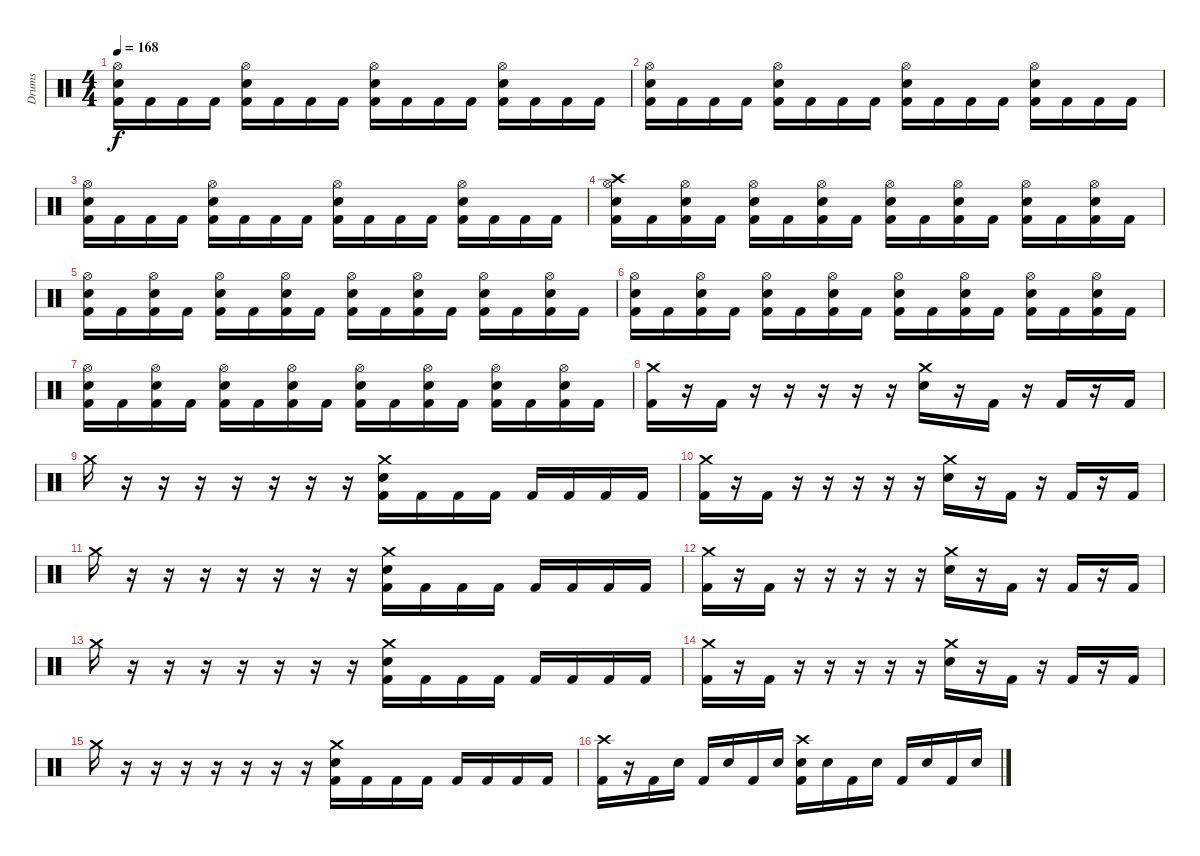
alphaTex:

\track ("Drums" "Drums") {instrument percussion}
\staff {score}
\articulation defaults
\ts (4 4)
\tempo 168
\clef neutral
\ks c
("Hi-Hat (open)" "Electric Snare (hit)" "Kick (hit) 2").16{dy f} "Kick (hit) 2".16 "Kick (hit) 2".16 "Kick (hit) 2".16 ("Hi-Hat (open)" "Electric Snare (hit)" "Kick (hit) 2").16 "Kick (hit) 2".16 "Kick (hit) 2".16 "Kick (hit) 2".16 ("Hi-Hat (open)" "Electric Snare (hit)" "Kick (hit) 2").16 "Kick (hit) 2".16 "Kick (hit) 2".16 "Kick (hit) 2".16 ("Hi-Hat (open)" "Electric Snare (hit)" "Kick (hit) 2").16 "Kick (hit) 2".16 "Kick (hit) 2".16 "Kick (hit) 2".16 |
("Hi-Hat (open)" "Electric Snare (hit)" "Kick (hit) 2").16 "Kick (hit) 2".16 "Kick (hit) 2".16 "Kick (hit) 2".16 ("Hi-Hat (open)" "Electric Snare (hit)" "Kick (hit) 2").16 "Kick (hit) 2".16 "Kick (hit) 2".16 "Kick (hit) 2".16 ("Hi-Hat (open)" "Electric Snare (hit)" "Kick (hit) 2").16 "Kick (hit) 2".16 "Kick (hit) 2".16 "Kick (hit) 2".16 ("Hi-Hat (open)" "Electric Snare (hit)" "Kick (hit) 2").16 "Kick (hit) 2".16 "Kick (hit) 2".16 "Kick (hit) 2".16 |
("Hi-Hat (open)" "Electric Snare (hit)" "Kick (hit) 2").16 "Kick (hit) 2".16 "Kick (hit) 2".16 "Kick (hit) 2".16 ("Hi-Hat (open)" "Electric Snare (hit)" "Kick (hit) 2").16 "Kick (hit) 2".16 "Kick (hit) 2".16 "Kick (hit) 2".16 ("Hi-Hat (open)" "Electric Snare (hit)" "Kick (hit) 2").16 "Kick (hit) 2".16 "Kick (hit) 2".16 "Kick (hit) 2".16 ("Hi-Hat (open)" "Electric Snare (hit)" "Kick (hit) 2").16 "Kick (hit) 2".16 "Kick (hit) 2".16 "Kick (hit) 2".16 |
("Electric Snare (hit)" "Crash high (hit)" "Hi-Hat (open)" "Kick (hit) 2").16 "Kick (hit) 2".16 ("Hi-Hat (open)" "Electric Snare (hit)" "Kick (hit) 2").16 "Kick (hit) 2".16 ("Hi-Hat (open)" "Electric Snare (hit)" "Kick (hit) 2").16 "Kick (hit) 2".16 ("Hi-Hat (open)" "Electric Snare (hit)" "Kick (hit) 2").16 "Kick (hit) 2".16 ("Hi-Hat (open)" "Electric Snare (hit)" "Kick (hit) 2").16 "Kick (hit) 2".16 ("Hi-Hat (open)" "Electric Snare (hit)" "Kick (hit) 2").16 "Kick (hit) 2".16 ("Hi-Hat (open)" "Electric Snare (hit)" "Kick (hit) 2").16 "Kick (hit) 2".16 ("Hi-Hat (open)" "Electric Snare (hit)" "Kick (hit) 2").16 "Kick (hit) 2".16 |
("Hi-Hat (open)" "Electric Snare (hit)" "Kick (hit) 2").16 "Kick (hit) 2".16 ("Hi-Hat (open)" "Electric Snare (hit)" "Kick (hit) 2").16 "Kick (hit) 2".16 ("Hi-Hat (open)" "Electric Snare (hit)" "Kick (hit) 2").16 "Kick (hit) 2".16 ("Hi-Hat (open)" "Electric Snare (hit)" "Kick (hit) 2").16 "Kick (hit) 2".16 ("Hi-Hat (open)" "Electric Snare (hit)" "Kick (hit) 2").16 "Kick (hit) 2".16 ("Hi-Hat (open)" "Electric Snare (hit)" "Kick (hit) 2").16 "Kick (hit) 2".16 ("Hi-Hat (open)" "Electric Snare (hit)" "Kick (hit) 2").16 "Kick (hit) 2".16 ("Hi-Hat (open)" "Electric Snare (hit)" "Kick (hit) 2").16 "Kick (hit) 2".16 |
("Electric Snare (hit)" "Hi-Hat (open)" "Kick (hit) 2").16 "Kick (hit) 2".16 ("Hi-Hat (open)" "Electric Snare (hit)" "Kick (hit) 2").16 "Kick (hit) 2".16 ("Hi-Hat (open)" "Electric Snare (hit)" "Kick (hit) 2").16 "Kick (hit) 2".16 ("Hi-Hat (open)" "Electric Snare (hit)" "Kick (hit) 2").16 "Kick (hit) 2".16 ("Hi-Hat (open)" "Electric Snare (hit)" "Kick (hit) 2").16 "Kick (hit) 2".16 ("Hi-Hat (open)" "Electric Snare (hit)" "Kick (hit) 2").16 "Kick (hit) 2".16 ("Hi-Hat (open)" "Electric Snare (hit)" "Kick (hit) 2").16 "Kick (hit) 2".16 ("Hi-Hat (open)" "Electric Snare (hit)" "Kick (hit) 2").16 "Kick (hit) 2".16 |
("Hi-Hat (open)" "Electric Snare (hit)" "Kick (hit) 2").16 "Kick (hit) 2".16 ("Hi-Hat (open)" "Electric Snare (hit)" "Kick (hit) 2").16 "Kick (hit) 2".16 ("Hi-Hat (open)" "Electric Snare (hit)" "Kick (hit) 2").16 "Kick (hit) 2".16 ("Hi-Hat (open)" "Electric Snare (hit)" "Kick (hit) 2").16 "Kick (hit) 2".16 ("Hi-Hat (open)" "Electric Snare (hit)" "Kick (hit) 2").16 "Kick (hit) 2".16 ("Hi-Hat (open)" "Electric Snare (hit)" "Kick (hit) 2").16 "Kick (hit) 2".16 ("Hi-Hat (open)" "Electric Snare (hit)" "Kick (hit) 2").16 "Kick (hit) 2".16 ("Hi-Hat (open)" "Electric Snare (hit)" "Kick (hit) 2").16 "Kick (hit) 2".16 |
("Crash medium (hit)" "Kick (hit) 2").16 r.16 "Kick (hit) 2".16 r.16 r.16 r.16 r.16 r.16 ("Crash medium (hit)" "Electric Snare (hit)").16 r.16 "Kick (hit) 2".16 r.16 "Kick (hit) 2".16 r.16 "Kick (hit) 2".16 |
"Crash medium (hit)".16 r.16 r.16 r.16 r.16 r.16 r.16 r.16 ("Crash medium (hit)" "Electric Snare (hit)" "Kick (hit) 2").16 "Kick (hit) 2".16 "Kick (hit) 2".16 "Kick (hit) 2".16 "Kick (hit) 2".16 "Kick (hit) 2".16 "Kick (hit) 2".16 "Kick (hit) 2".16 |
("Crash medium (hit)" "Kick (hit) 2").16 r.16 "Kick (hit) 2".16 r.16 r.16 r.16 r.16 r.16 ("Crash medium (hit)" "Electric Snare (hit)").16 r.16 "Kick (hit) 2".16 r.16 "Kick (hit) 2".16 r.16 "Kick (hit) 2".16 |
"Crash medium (hit)".16 r.16 r.16 r.16 r.16 r.16 r.16 r.16 ("Crash medium (hit)" "Electric Snare (hit)" "Kick (hit) 2").16 "Kick (hit) 2".16 "Kick (hit) 2".16 "Kick (hit) 2".16 "Kick (hit) 2".16 "Kick (hit) 2".16 "Kick (hit) 2".16 "Kick (hit) 2".16 |
("Crash medium (hit)" "Kick (hit) 2").16 r.16 "Kick (hit) 2".16 r.16 r.16 r.16 r.16 r.16 ("Crash medium (hit)" "Electric Snare (hit)").16 r.16 "Kick (hit) 2".16 r.16 "Kick (hit) 2".16 r.16 "Kick (hit) 2".16 |
"Crash medium (hit)".16 r.16 r.16 r.16 r.16 r.16 r.16 r.16 ("Crash medium (hit)" "Electric Snare (hit)" "Kick (hit) 2").16 "Kick (hit) 2".16 "Kick (hit) 2".16 "Kick (hit) 2".16 "Kick (hit) 2".16 "Kick (hit) 2".16 "Kick (hit) 2".16 "Kick (hit) 2".16 |
("Crash medium (hit)" "Kick (hit) 2").16 r.16 "Kick (hit) 2".16 r.16 r.16 r.16 r.16 r.16 ("Crash medium (hit)" "Electric Snare (hit)").16 r.16 "Kick (hit) 2".16 r.16 "Kick (hit) 2".16 r.16 "Kick (hit) 2".16 |
"Crash medium (hit)".16 r.16 r.16 r.16 r.16 r.16 r.16 r.16 ("Crash medium (hit)" "Electric Snare (hit)" "Kick (hit) 2").16 "Kick (hit) 2".16 "Kick (hit) 2".16 "Kick (hit) 2".16 "Kick (hit) 2".16 "Kick (hit) 2".16 "Kick (hit) 2".16 "Kick (hit) 2".16 |
("Crash high (hit)" "Kick (hit) 2").16 r.16 "Kick (hit) 2".16 "Snare (hit)".16 "Kick (hit) 2".16 "Snare (hit)".16 "Kick (hit) 2".16 "Snare (hit)".16 ("Crash high (hit)" "Electric Snare (hit)" "Kick (hit) 2").16 "Snare (hit)".16 "Kick (hit) 2".16 "Snare (hit)".16 "Kick (hit) 2".16 "Snare (hit)".16 "Kick (hit) 2".16 "Snare (hit)".16
